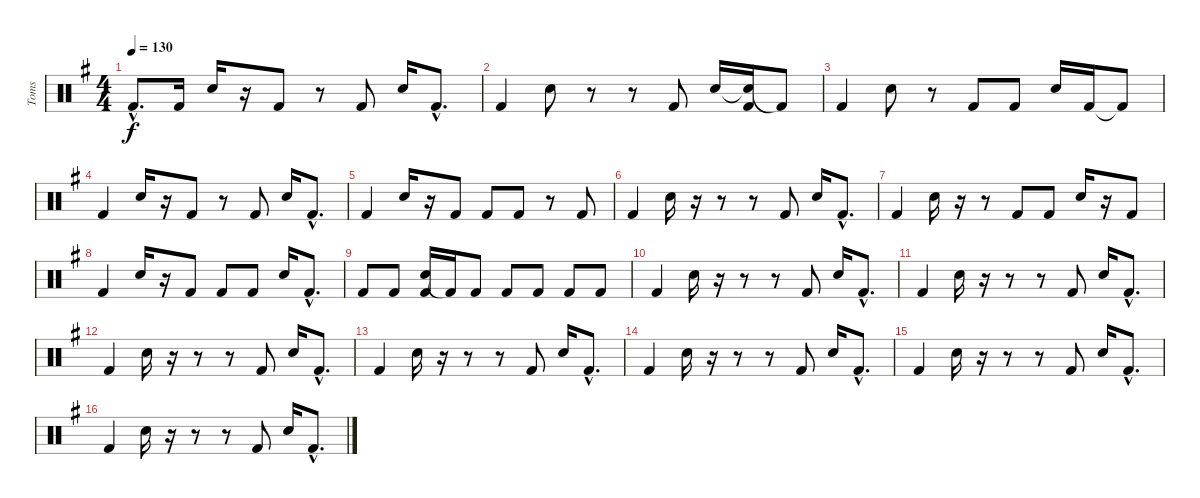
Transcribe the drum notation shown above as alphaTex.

\track ("Toms" "Toms") {instrument percussion}
\staff {score}
\articulation defaults
\ts (4 4)
\tempo 130
\clef neutral
\ks g "Kick (hit) 2"{hac}.8{d dy f} "Kick (hit) 2".16 "Snare (hit) 2".16
r.16 "Kick (hit) 2".8 r.8 "Kick (hit) 2".8 "Snare (hit) 2".16 "Kick (hit) 2"{hac}.8{d} |
"Kick (hit) 2".4 "Snare (hit) 2".8 r.8 r.8 "Kick (hit) 2".8 "Snare (hit) 2".16 ("Snare (hit) 2"{t} "Kick (hit) 2").16 "Kick (hit) 2"{t}.8 |
"Kick (hit) 2".4 "Snare (hit) 2".8 r.8 "Kick (hit) 2".8 "Kick (hit) 2".8 "Snare (hit) 2".16 "Kick (hit) 2".16 "Kick (hit) 2"{t}.8 |
"Kick (hit) 2".4 "Snare (hit) 2".16 r.16 "Kick (hit) 2".8 r.8 "Kick (hit) 2".8 "Snare (hit) 2".16 "Kick (hit) 2"{hac}.8{d} |
"Kick (hit) 2".4 "Snare (hit) 2".16 r.16 "Kick (hit) 2".8 "Kick (hit) 2".8 "Kick (hit) 2".8 r.8 "Kick (hit) 2".8 |
"Kick (hit) 2".4 "Snare (hit) 2".16 r.16 r.8 r.8 "Kick (hit) 2".8 "Snare (hit) 2".16 "Kick (hit) 2"{hac}.8{d} |
"Kick (hit) 2".4 "Snare (hit) 2".16 r.16 r.8 "Kick (hit) 2".8 "Kick (hit) 2".8 "Snare (hit) 2".16 r.16 "Kick (hit) 2".8 |
"Kick (hit) 2".4 "Snare (hit) 2".16 r.16 "Kick (hit) 2".8 "Kick (hit) 2".8 "Kick (hit) 2".8 "Snare (hit) 2".16 "Kick (hit) 2"{hac}.8{d} |
"Kick (hit) 2".8 "Kick (hit) 2".8 ("Snare (hit) 2" "Kick (hit) 2").16 "Kick (hit) 2"{t}.16 "Kick (hit) 2".8 "Kick (hit) 2".8 "Kick (hit) 2".8 "Kick (hit) 2".8 "Kick (hit) 2".8 |
"Kick (hit) 2".4 "Snare (hit) 2".16 r.16 r.8 r.8 "Kick (hit) 2".8 "Snare (hit) 2".16 "Kick (hit) 2"{hac}.8{d} |
"Kick (hit) 2".4 "Snare (hit) 2".16 r.16 r.8 r.8 "Kick (hit) 2".8 "Snare (hit) 2".16 "Kick (hit) 2"{hac}.8{d} |
"Kick (hit) 2".4 "Snare (hit) 2".16 r.16 r.8 r.8 "Kick (hit) 2".8 "Snare (hit) 2".16 "Kick (hit) 2"{hac}.8{d} |
"Kick (hit) 2".4 "Snare (hit) 2".16 r.16 r.8 r.8 "Kick (hit) 2".8 "Snare (hit) 2".16 "Kick (hit) 2"{hac}.8{d} |
"Kick (hit) 2".4 "Snare (hit) 2".16 r.16 r.8 r.8 "Kick (hit) 2".8 "Snare (hit) 2".16 "Kick (hit) 2"{hac}.8{d} |
"Kick (hit) 2".4 "Snare (hit) 2".16 r.16 r.8 r.8 "Kick (hit) 2".8 "Snare (hit) 2".16 "Kick (hit) 2"{hac}.8{d} |
"Kick (hit) 2".4 "Snare (hit) 2".16 r.16 r.8 r.8 "Kick (hit) 2".8 "Snare (hit) 2".16 "Kick (hit) 2"{hac}.8{d}
